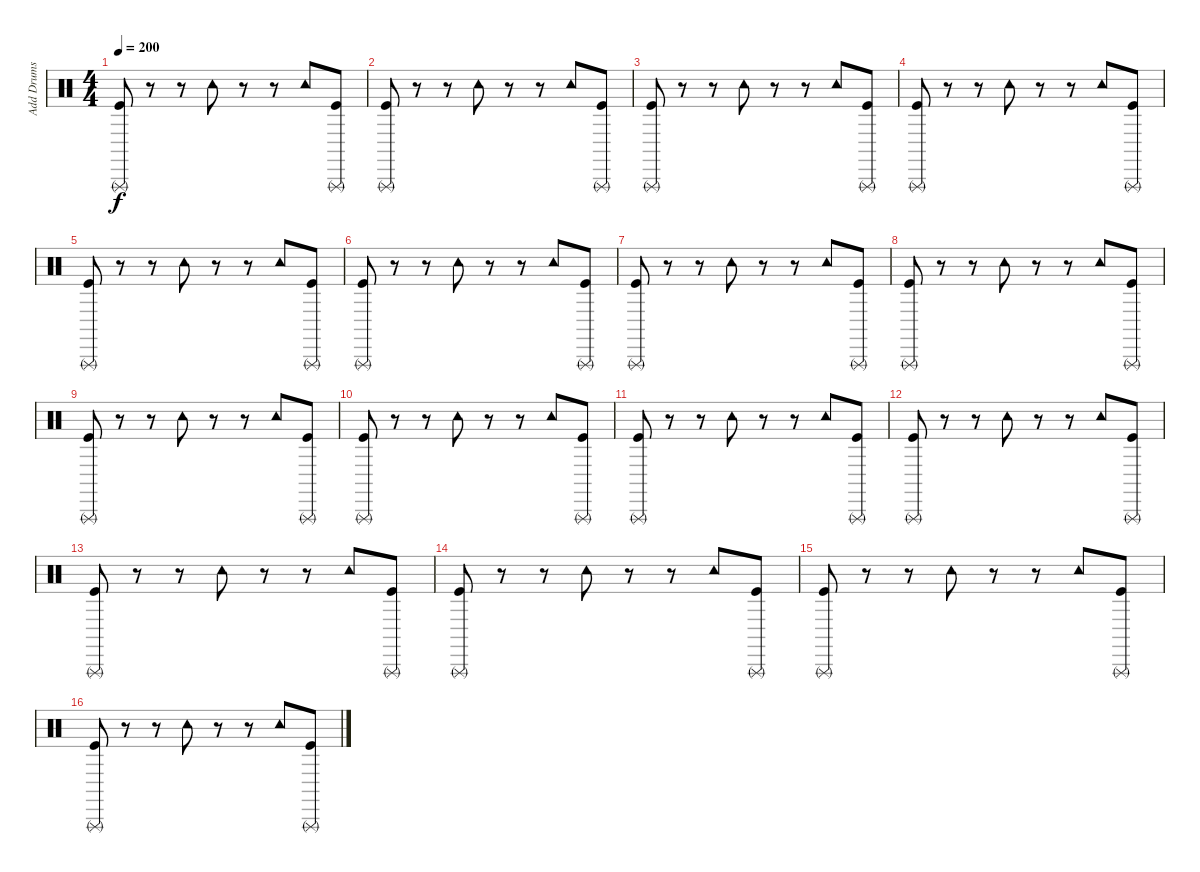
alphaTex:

\track ("Add Drums" "Add Drums") {instrument percussion}
\staff {score}
\articulation defaults
\ts (4 4)
\tempo 200
\clef neutral
\ks c
("Triangle (rnute)" "Kick (hit)").8{dy f} r.8 r.8 "Tambourine (hit)".8 r.8 r.8 "Tambourine (hit)".8 ("Triangle (rnute)" "Kick (hit)").8 |
("Triangle (rnute)" "Kick (hit)").8 r.8 r.8 "Tambourine (hit)".8 r.8 r.8 "Tambourine (hit)".8 ("Triangle (rnute)" "Kick (hit)").8 |
("Triangle (rnute)" "Kick (hit)").8 r.8 r.8 "Tambourine (hit)".8 r.8 r.8 "Tambourine (hit)".8 ("Triangle (rnute)" "Kick (hit)").8 |
("Triangle (rnute)" "Kick (hit)").8 r.8 r.8 "Tambourine (hit)".8 r.8 r.8 "Tambourine (hit)".8 ("Triangle (rnute)" "Kick (hit)").8 |
("Triangle (rnute)" "Kick (hit)").8 r.8 r.8 "Tambourine (hit)".8 r.8 r.8 "Tambourine (hit)".8 ("Triangle (rnute)" "Kick (hit)").8 |
("Triangle (rnute)" "Kick (hit)").8 r.8 r.8 "Tambourine (hit)".8 r.8 r.8 "Tambourine (hit)".8 ("Triangle (rnute)" "Kick (hit)").8 |
("Triangle (rnute)" "Kick (hit)").8 r.8 r.8 "Tambourine (hit)".8 r.8 r.8 "Tambourine (hit)".8 ("Triangle (rnute)" "Kick (hit)").8 |
("Triangle (rnute)" "Kick (hit)").8 r.8 r.8 "Tambourine (hit)".8 r.8 r.8 "Tambourine (hit)".8 ("Triangle (rnute)" "Kick (hit)").8 |
("Triangle (rnute)" "Kick (hit)").8 r.8 r.8 "Tambourine (hit)".8 r.8 r.8 "Tambourine (hit)".8 ("Triangle (rnute)" "Kick (hit)").8 |
("Triangle (rnute)" "Kick (hit)").8 r.8 r.8 "Tambourine (hit)".8 r.8 r.8 "Tambourine (hit)".8 ("Triangle (rnute)" "Kick (hit)").8 |
("Triangle (rnute)" "Kick (hit)").8 r.8 r.8 "Tambourine (hit)".8 r.8 r.8 "Tambourine (hit)".8 ("Triangle (rnute)" "Kick (hit)").8 |
("Triangle (rnute)" "Kick (hit)").8 r.8 r.8 "Tambourine (hit)".8 r.8 r.8 "Tambourine (hit)".8 ("Triangle (rnute)" "Kick (hit)").8 |
("Triangle (rnute)" "Kick (hit)").8 r.8 r.8 "Tambourine (hit)".8 r.8 r.8 "Tambourine (hit)".8 ("Triangle (rnute)" "Kick (hit)").8 |
("Triangle (rnute)" "Kick (hit)").8 r.8 r.8 "Tambourine (hit)".8 r.8 r.8 "Tambourine (hit)".8 ("Triangle (rnute)" "Kick (hit)").8 |
("Triangle (rnute)" "Kick (hit)").8 r.8 r.8 "Tambourine (hit)".8 r.8 r.8 "Tambourine (hit)".8 ("Triangle (rnute)" "Kick (hit)").8 |
("Triangle (rnute)" "Kick (hit)").8 r.8 r.8 "Tambourine (hit)".8 r.8 r.8 "Tambourine (hit)".8 ("Triangle (rnute)" "Kick (hit)").8
